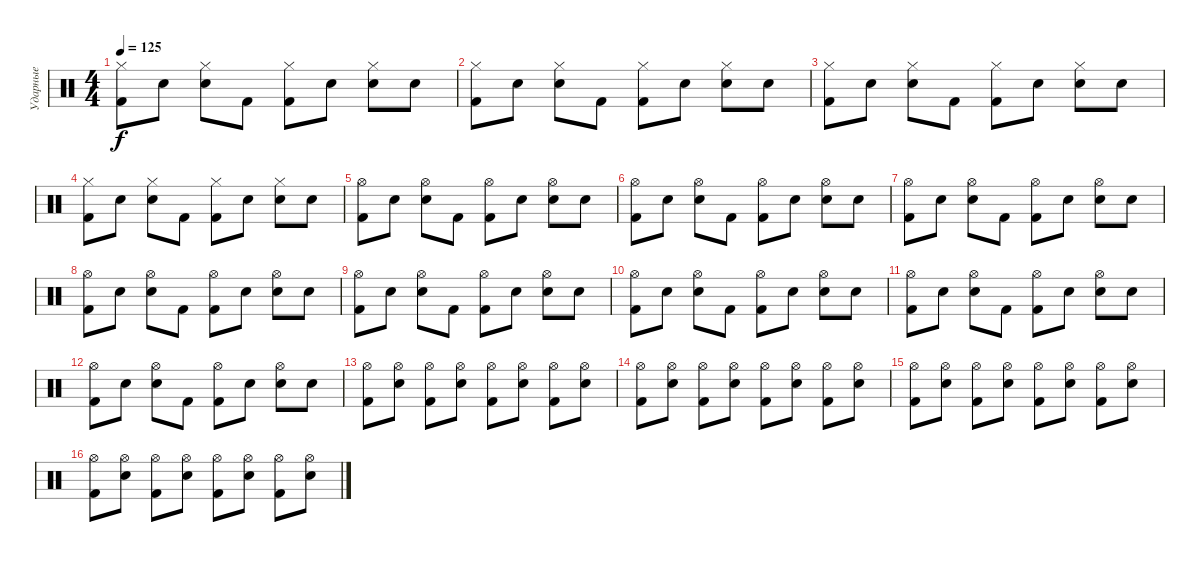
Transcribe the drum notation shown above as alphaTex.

\track ("Ударные" "Ударные") {instrument percussion}
\staff {score}
\articulation defaults
\ts (4 4)
\tempo 125
\clef neutral
\ks c
("Hi-Hat (closed)" "Kick (hit) 2").8{dy f} "Snare (hit)".8 ("Hi-Hat (closed)" "Snare (hit) 2").8 "Kick (hit) 2".8 ("Hi-Hat (closed)" "Kick (hit) 2").8 "Snare (hit)".8 ("Hi-Hat (closed)" "Snare (hit) 2").8 "Snare (hit)".8 |
("Hi-Hat (closed)" "Kick (hit) 2").8 "Snare (hit)".8 ("Hi-Hat (closed)" "Snare (hit) 2").8 "Kick (hit) 2".8 ("Hi-Hat (closed)" "Kick (hit) 2").8 "Snare (hit)".8 ("Hi-Hat (closed)" "Snare (hit) 2").8 "Snare (hit)".8 |
("Hi-Hat (closed)" "Kick (hit) 2").8 "Snare (hit)".8 ("Hi-Hat (closed)" "Snare (hit) 2").8 "Kick (hit) 2".8 ("Hi-Hat (closed)" "Kick (hit) 2").8 "Snare (hit)".8 ("Hi-Hat (closed)" "Snare (hit) 2").8 "Snare (hit)".8 |
("Hi-Hat (closed)" "Kick (hit) 2").8 "Snare (hit)".8 ("Hi-Hat (closed)" "Snare (hit) 2").8 "Kick (hit) 2".8 ("Hi-Hat (closed)" "Kick (hit) 2").8 "Snare (hit)".8 ("Hi-Hat (closed)" "Snare (hit) 2").8 "Snare (hit)".8 |
("Hi-Hat (open)" "Kick (hit) 2").8 "Snare (hit)".8 ("Hi-Hat (open)" "Snare (hit) 2").8 "Kick (hit) 2".8 ("Hi-Hat (open)" "Kick (hit) 2").8 "Snare (hit)".8 ("Hi-Hat (open)" "Snare (hit) 2").8 "Snare (hit)".8 |
("Hi-Hat (open)" "Kick (hit) 2").8 "Snare (hit)".8 ("Hi-Hat (open)" "Snare (hit) 2").8 "Kick (hit) 2".8 ("Hi-Hat (open)" "Kick (hit) 2").8 "Snare (hit)".8 ("Hi-Hat (open)" "Snare (hit) 2").8 "Snare (hit)".8 |
("Hi-Hat (open)" "Kick (hit) 2").8 "Snare (hit)".8 ("Hi-Hat (open)" "Snare (hit) 2").8 "Kick (hit) 2".8 ("Hi-Hat (open)" "Kick (hit) 2").8 "Snare (hit)".8 ("Hi-Hat (open)" "Snare (hit) 2").8 "Snare (hit)".8 |
("Hi-Hat (open)" "Kick (hit) 2").8 "Snare (hit)".8 ("Hi-Hat (open)" "Snare (hit) 2").8 "Kick (hit) 2".8 ("Hi-Hat (open)" "Kick (hit) 2").8 "Snare (hit)".8 ("Hi-Hat (open)" "Snare (hit) 2").8 "Snare (hit)".8 |
("Hi-Hat (open)" "Kick (hit) 2").8 "Snare (hit)".8 ("Hi-Hat (open)" "Snare (hit) 2").8 "Kick (hit) 2".8 ("Hi-Hat (open)" "Kick (hit) 2").8 "Snare (hit)".8 ("Hi-Hat (open)" "Snare (hit) 2").8 "Snare (hit)".8 |
("Hi-Hat (open)" "Kick (hit) 2").8 "Snare (hit)".8 ("Hi-Hat (open)" "Snare (hit) 2").8 "Kick (hit) 2".8 ("Hi-Hat (open)" "Kick (hit) 2").8 "Snare (hit)".8 ("Hi-Hat (open)" "Snare (hit) 2").8 "Snare (hit)".8 |
("Hi-Hat (open)" "Kick (hit) 2").8 "Snare (hit)".8 ("Hi-Hat (open)" "Snare (hit) 2").8 "Kick (hit) 2".8 ("Hi-Hat (open)" "Kick (hit) 2").8 "Snare (hit)".8 ("Hi-Hat (open)" "Snare (hit) 2").8 "Snare (hit)".8 |
("Hi-Hat (open)" "Kick (hit) 2").8 "Snare (hit)".8 ("Hi-Hat (open)" "Snare (hit) 2").8 "Kick (hit) 2".8 ("Hi-Hat (open)" "Kick (hit) 2").8 "Snare (hit)".8 ("Hi-Hat (open)" "Snare (hit) 2").8 "Snare (hit)".8 |
("Hi-Hat (open)" "Kick (hit) 2").8 ("Hi-Hat (open)" "Snare (hit) 2").8 ("Hi-Hat (open)" "Kick (hit) 2").8 ("Hi-Hat (open)" "Snare (hit) 2").8 ("Hi-Hat (open)" "Kick (hit) 2").8 ("Hi-Hat (open)" "Snare (hit) 2").8 ("Hi-Hat (open)" "Kick (hit) 2").8 ("Hi-Hat (open)" "Snare (hit) 2").8 |
("Hi-Hat (open)" "Kick (hit) 2").8 ("Hi-Hat (open)" "Snare (hit) 2").8 ("Hi-Hat (open)" "Kick (hit) 2").8 ("Hi-Hat (open)" "Snare (hit) 2").8 ("Hi-Hat (open)" "Kick (hit) 2").8 ("Hi-Hat (open)" "Snare (hit) 2").8 ("Hi-Hat (open)" "Kick (hit) 2").8 ("Hi-Hat (open)" "Snare (hit) 2").8 |
("Hi-Hat (open)" "Kick (hit) 2").8 ("Hi-Hat (open)" "Snare (hit) 2").8 ("Hi-Hat (open)" "Kick (hit) 2").8 ("Hi-Hat (open)" "Snare (hit) 2").8 ("Hi-Hat (open)" "Kick (hit) 2").8 ("Hi-Hat (open)" "Snare (hit) 2").8 ("Hi-Hat (open)" "Kick (hit) 2").8 ("Hi-Hat (open)" "Snare (hit) 2").8 |
("Hi-Hat (open)" "Kick (hit) 2").8 ("Hi-Hat (open)" "Snare (hit) 2").8 ("Hi-Hat (open)" "Kick (hit) 2").8 ("Hi-Hat (open)" "Snare (hit) 2").8 ("Hi-Hat (open)" "Kick (hit) 2").8 ("Hi-Hat (open)" "Snare (hit) 2").8 ("Hi-Hat (open)" "Kick (hit) 2").8 ("Hi-Hat (open)" "Snare (hit) 2").8
